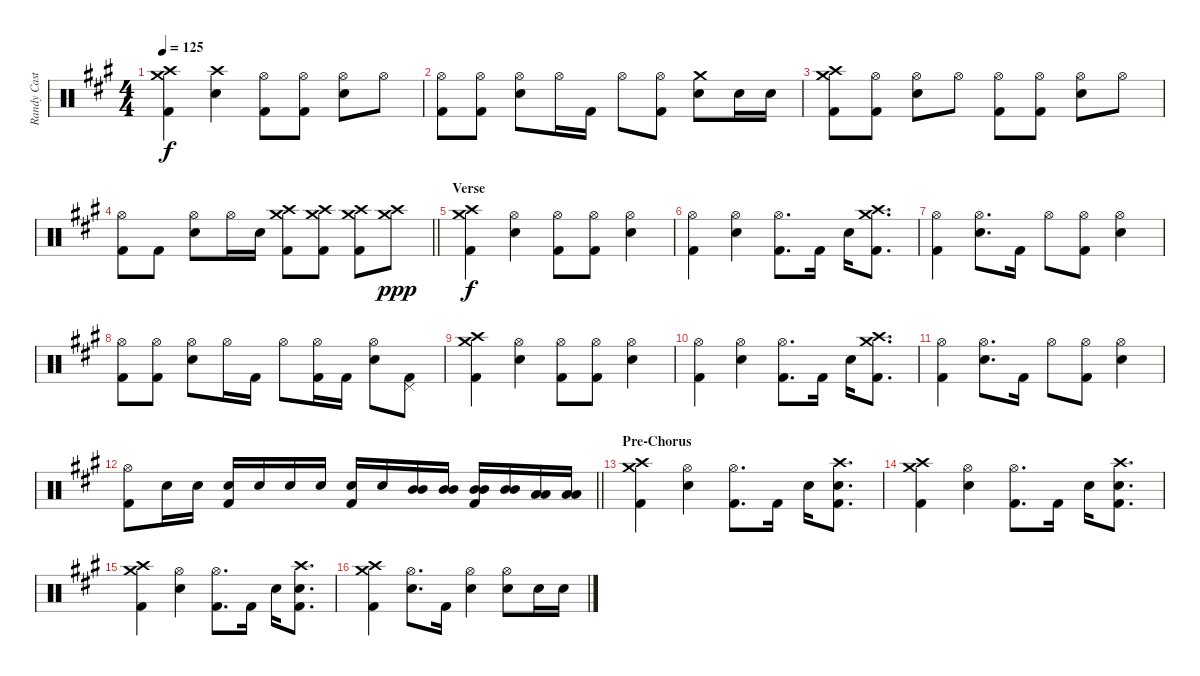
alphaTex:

\track ("Randy Castillo - Drums" "Randy Cast") {instrument percussion}
\staff {score}
\articulation defaults
\ts (4 4)
\tempo 125
\clef neutral
\ks a
("Crash medium (hit)" "Crash high (hit)" "Kick (hit) 2").4{dy f} ("Crash high (hit)" "Snare (hit) 2").4 ("Hi-Hat (open)" "Kick (hit) 2").8 ("Hi-Hat (open)" "Kick (hit) 2").8 ("Hi-Hat (open)" "Snare (hit) 2").8 "Hi-Hat (open)".8 |
("Hi-Hat (open)" "Kick (hit) 2").8 ("Hi-Hat (open)" "Kick (hit) 2").8 ("Hi-Hat (open)" "Snare (hit) 2").8 "Hi-Hat (open)".16 "Kick (hit) 2".16 "Hi-Hat (open)".8 ("Hi-Hat (open)" "Kick (hit) 2").8 ("Crash medium (hit)" "Snare (hit) 2").8 "Snare (hit) 2".16 "Snare (hit) 2".16 |
("Crash medium (hit)" "Crash high (hit)" "Kick (hit) 2").8 ("Hi-Hat (open)" "Kick (hit) 2").8 ("Hi-Hat (open)" "Snare (hit) 2").8 "Hi-Hat (open)".8 ("Hi-Hat (open)" "Kick (hit) 2").8 ("Hi-Hat (open)" "Kick (hit) 2").8 ("Hi-Hat (open)" "Snare (hit) 2").8 "Hi-Hat (open)".8 |
\barLineRight lightlight
("Hi-Hat (open)" "Kick (hit) 2").8 "Kick (hit) 2".8 ("Hi-Hat (open)" "Snare (hit) 2").8 "Hi-Hat (open)".16 "Snare (hit) 2".16 ("Crash medium (hit)" "Crash high (hit)" "Kick (hit) 2").8 ("Crash high (hit)" "Crash medium (hit)" "Kick (hit) 2").8 ("Crash medium (hit)" "Crash high (hit)" "Kick (hit) 2").8 ("Crash high (hit)" "Crash medium (hit)").8{dy ppp} |
\section ("" "Verse")
("Crash medium (hit)" "Crash high (hit)" "Kick (hit) 2").4{dy f} ("Hi-Hat (open)" "Snare (hit) 2").4 ("Hi-Hat (open)" "Kick (hit) 2").8 ("Hi-Hat (open)" "Kick (hit) 2").8 ("Hi-Hat (open)" "Snare (hit) 2").4 |
("Hi-Hat (open)" "Kick (hit) 2").4 ("Hi-Hat (open)" "Snare (hit) 2").4 ("Hi-Hat (open)" "Kick (hit) 2").8{d} "Kick (hit) 2".16 "Snare (hit) 2".16 ("Crash medium (hit)" "Crash high (hit)" "Kick (hit) 2").8{d} |
("Hi-Hat (open)" "Kick (hit) 2").4 ("Hi-Hat (open)" "Snare (hit) 2").8{d} "Kick (hit) 2".16 "Hi-Hat (open)".8 ("Hi-Hat (open)" "Kick (hit) 2").8 ("Hi-Hat (open)" "Snare (hit) 2").4 |
("Hi-Hat (open)" "Kick (hit) 2").8 ("Hi-Hat (open)" "Kick (hit) 2").8 ("Hi-Hat (open)" "Snare (hit) 2").8 "Hi-Hat (open)".16 "Kick (hit) 2".16 "Hi-Hat (open)".8 ("Hi-Hat (open)" "Kick (hit) 2").16 "Kick (hit) 2".16 ("Hi-Hat (open)" "Snare (hit) 2").8 ("Pedal Hi-Hat (hit)" "Kick (hit) 2").8 |
("Crash medium (hit)" "Crash high (hit)" "Kick (hit) 2").4 ("Hi-Hat (open)" "Snare (hit) 2").4 ("Hi-Hat (open)" "Kick (hit) 2").8 ("Hi-Hat (open)" "Kick (hit) 2").8 ("Hi-Hat (open)" "Snare (hit) 2").4 |
("Hi-Hat (open)" "Kick (hit) 2").4 ("Hi-Hat (open)" "Snare (hit) 2").4 ("Hi-Hat (open)" "Kick (hit) 2").8{d} "Kick (hit) 2".16 "Snare (hit) 2".16 ("Crash medium (hit)" "Crash high (hit)" "Kick (hit) 2").8{d} |
("Hi-Hat (open)" "Kick (hit) 2").4 ("Hi-Hat (open)" "Snare (hit) 2").8{d} "Kick (hit) 2".16 "Hi-Hat (open)".8 ("Hi-Hat (open)" "Kick (hit) 2").8 ("Hi-Hat (open)" "Snare (hit) 2").4 |
\barLineRight lightlight
("Hi-Hat (open)" "Kick (hit) 2").8 "Snare (hit) 2".16 "Snare (hit) 2".16 ("Snare (hit) 2" "Kick (hit) 2").16 "Snare (hit) 2".16 "Snare (hit) 2".16 "Snare (hit) 2".16 ("Snare (hit) 2" "Kick (hit) 2").16 "Snare (hit) 2".16 ("Mid Tom (hit)" "Mid Tom (hit)").16 ("Mid Tom (hit)" "Mid Tom (hit)").16 ("Mid Tom (hit)" "Mid Tom (hit)" "Kick (hit) 2").16 ("Mid Tom (hit)" "Mid Tom (hit)").16 ("Low Tom (hit)" "Low Tom (hit)").16 ("Low Tom (hit)" "Low Tom (hit)").16 |
\section ("" "Pre-Chorus")
("Crash medium (hit)" "Crash high (hit)" "Kick (hit) 2").4 ("Hi-Hat (open)" "Snare (hit) 2").4 ("Hi-Hat (open)" "Kick (hit) 2").8{d} "Kick (hit) 2".16 "Snare (hit) 2".16 ("Snare (hit)" "Crash high (hit)" "Kick (hit) 2").8{d} |
("Crash medium (hit)" "Crash high (hit)" "Kick (hit) 2").4 ("Hi-Hat (open)" "Snare (hit) 2").4 ("Hi-Hat (open)" "Kick (hit) 2").8{d} "Kick (hit) 2".16 "Snare (hit) 2".16 ("Snare (hit)" "Crash high (hit)" "Kick (hit) 2").8{d} |
("Crash medium (hit)" "Crash high (hit)" "Kick (hit) 2").4 ("Hi-Hat (open)" "Snare (hit) 2").4 ("Hi-Hat (open)" "Kick (hit) 2").8{d} "Kick (hit) 2".16 "Snare (hit) 2".16 ("Snare (hit)" "Crash high (hit)" "Kick (hit) 2").8{d} |
("Crash medium (hit)" "Crash high (hit)" "Kick (hit) 2").4 ("Hi-Hat (open)" "Snare (hit) 2").8{d} "Kick (hit) 2".16 ("Hi-Hat (open)" "Snare (hit) 2").4 ("Hi-Hat (open)" "Snare (hit) 2").8 "Snare (hit) 2".16 "Snare (hit) 2".16
